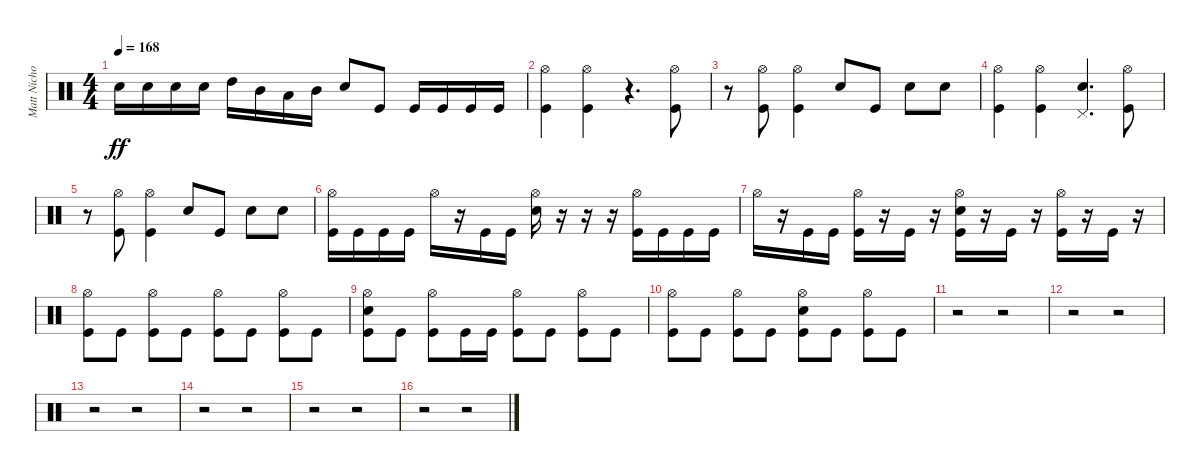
\track ("Matt Nicholls" "Matt Nicho") {instrument percussion}
\staff {score}
\articulation defaults
\ts (4 4)
\tempo 168
\clef neutral
\ks c "Snare (hit) 2".16{dy ff} "Snare (hit) 2".16 "Snare (hit) 2".16 "Snare (hit) 2".16 "High Tom (hit)".16 "Mid Tom (hit)".16 "Low Tom (hit)".16 "Mid Tom (hit)".16 "Snare (hit) 2".8 "Kick (hit)".8 "Kick (hit)".16 "Kick (hit)".16 "Kick (hit)".16 "Kick (hit)".16
|
("Kick (hit)" "Hi-Hat (open)").4 ("Hi-Hat (open)" "Kick (hit)").4 r.4{d} ("Kick (hit)" "Hi-Hat (open)").8 |
r.8 ("Kick (hit)" "Hi-Hat (open)").8 ("Kick (hit)" "Hi-Hat (open)").4 "Snare (hit) 2".8 "Kick (hit)".8 "Snare (hit) 2".8 "Snare (hit) 2".8 |
("Kick (hit)" "Hi-Hat (open)").4 ("Hi-Hat (open)" "Kick (hit)").4 ("Snare (hit) 2" "Pedal Hi-Hat (hit)").4{d} ("Kick (hit)" "Hi-Hat (open)").8 |
r.8 ("Kick (hit)" "Hi-Hat (open)").8 ("Kick (hit)" "Hi-Hat (open)").4 "Snare (hit) 2".8 "Kick (hit)".8 "Snare (hit) 2".8 "Snare (hit) 2".8 |
("Kick (hit)" "Hi-Hat (open)").16 "Kick (hit)".16 "Kick (hit)".16 "Kick (hit)".16 "Hi-Hat (open)".16 r.16 "Kick (hit)".16 "Kick (hit)".16 ("Hi-Hat (open)" "Snare (hit) 2").16 r.16 r.16 r.16 ("Kick (hit)" "Hi-Hat (open)").16 "Kick (hit)".16 "Kick (hit)".16 "Kick (hit)".16 |
"Hi-Hat (open)".16 r.16 "Kick (hit)".16 "Kick (hit)".16 ("Hi-Hat (open)" "Kick (hit)").16 r.16 "Kick (hit)".16 r.16 ("Hi-Hat (open)" "Kick (hit)" "Snare (hit) 2").16 r.16 "Kick (hit)".16 r.16 ("Hi-Hat (open)" "Kick (hit)").16 r.16 "Kick (hit)".16 r.16 |
("Kick (hit)" "Hi-Hat (open)").8 "Kick (hit)".8 ("Kick (hit)" "Hi-Hat (open)").8 "Kick (hit)".8 ("Kick (hit)" "Hi-Hat (open)").8 "Kick (hit)".8 ("Kick (hit)" "Hi-Hat (open)").8 "Kick (hit)".8 |
("Kick (hit)" "Hi-Hat (open)" "Snare (hit) 2").8 "Kick (hit)".8 ("Kick (hit)" "Hi-Hat (open)").8 "Kick (hit)".16 "Kick (hit)".16 ("Kick (hit)" "Hi-Hat (open)").8 "Kick (hit)".8 ("Kick (hit)" "Hi-Hat (open)").8 "Kick (hit)".8 |
("Kick (hit)" "Hi-Hat (open)").8 "Kick (hit)".8 ("Kick (hit)" "Hi-Hat (open)").8 "Kick (hit)".8 ("Kick (hit)" "Hi-Hat (open)" "Snare (hit) 2").8 "Kick (hit)".8 ("Kick (hit)" "Hi-Hat (open)").8 "Kick (hit)".8 |
r.2 r.2 |
r.2 r.2 |
r.2 r.2 |
r.2 r.2 |
r.2 r.2 |
r.2 r.2
